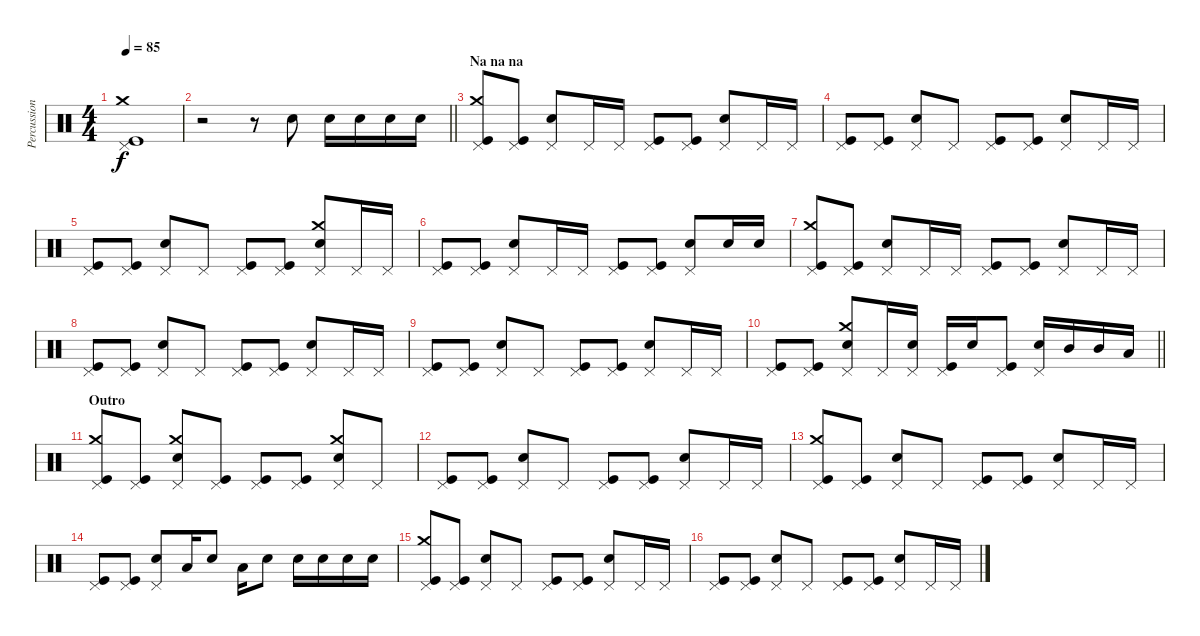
\track ("Percussion" "Percussion") {instrument percussion}
\staff {score}
\articulation defaults
\ts (4 4)
\tempo 85
\clef neutral
\ks c
("Pedal Hi-Hat (hit)" "Crash medium (hit)" "Kick (hit)").1{dy f} |
\barLineRight lightlight
r.2 r.8 "Snare (hit) 2".8 "Snare (hit) 2".16 "Snare (hit) 2".16 "Snare (hit) 2".16 "Snare (hit) 2".16 |
\section ("" "Na na na")
("Pedal Hi-Hat (hit)" "Crash medium (hit)" "Kick (hit)").8 ("Pedal Hi-Hat (hit)" "Kick (hit)").8 ("Pedal Hi-Hat (hit)" "Snare (hit) 2").8 "Pedal Hi-Hat (hit)".16 "Pedal Hi-Hat (hit)".16 ("Pedal Hi-Hat (hit)" "Kick (hit)").8 ("Pedal Hi-Hat (hit)" "Kick (hit)").8 ("Pedal Hi-Hat (hit)" "Snare (hit) 2").8 "Pedal Hi-Hat (hit)".16 "Pedal Hi-Hat (hit)".16 |
("Pedal Hi-Hat (hit)" "Kick (hit)").8 ("Pedal Hi-Hat (hit)" "Kick (hit)").8 ("Pedal Hi-Hat (hit)" "Snare (hit) 2").8 "Pedal Hi-Hat (hit)".8 ("Pedal Hi-Hat (hit)" "Kick (hit)").8 ("Pedal Hi-Hat (hit)" "Kick (hit)").8 ("Pedal Hi-Hat (hit)" "Snare (hit) 2").8 "Pedal Hi-Hat (hit)".16 "Pedal Hi-Hat (hit)".16 |
("Pedal Hi-Hat (hit)" "Kick (hit)").8 ("Pedal Hi-Hat (hit)" "Kick (hit)").8 ("Pedal Hi-Hat (hit)" "Snare (hit) 2").8 "Pedal Hi-Hat (hit)".8 ("Pedal Hi-Hat (hit)" "Kick (hit)").8 ("Pedal Hi-Hat (hit)" "Kick (hit)").8 ("Pedal Hi-Hat (hit)" "Snare (hit) 2" "Crash medium (hit)").8 "Pedal Hi-Hat (hit)".16 "Pedal Hi-Hat (hit)".16 |
("Pedal Hi-Hat (hit)" "Kick (hit)").8 ("Pedal Hi-Hat (hit)" "Kick (hit)").8 ("Pedal Hi-Hat (hit)" "Snare (hit) 2").8 "Pedal Hi-Hat (hit)".16 "Pedal Hi-Hat (hit)".16 ("Pedal Hi-Hat (hit)" "Kick (hit)").8 ("Pedal Hi-Hat (hit)" "Kick (hit)").8 ("Pedal Hi-Hat (hit)" "Snare (hit) 2").8 "Snare (hit) 2".16 "Snare (hit) 2".16 |
("Pedal Hi-Hat (hit)" "Crash medium (hit)" "Kick (hit)").8 ("Pedal Hi-Hat (hit)" "Kick (hit)").8 ("Pedal Hi-Hat (hit)" "Snare (hit) 2").8 "Pedal Hi-Hat (hit)".16 "Pedal Hi-Hat (hit)".16 ("Pedal Hi-Hat (hit)" "Kick (hit)").8 ("Pedal Hi-Hat (hit)" "Kick (hit)").8 ("Pedal Hi-Hat (hit)" "Snare (hit) 2").8 "Pedal Hi-Hat (hit)".16 "Pedal Hi-Hat (hit)".16 |
("Pedal Hi-Hat (hit)" "Kick (hit)").8 ("Pedal Hi-Hat (hit)" "Kick (hit)").8 ("Pedal Hi-Hat (hit)" "Snare (hit) 2").8 "Pedal Hi-Hat (hit)".8 ("Pedal Hi-Hat (hit)" "Kick (hit)").8 ("Pedal Hi-Hat (hit)" "Kick (hit)").8 ("Pedal Hi-Hat (hit)" "Snare (hit) 2").8 "Pedal Hi-Hat (hit)".16 "Pedal Hi-Hat (hit)".16 |
("Pedal Hi-Hat (hit)" "Kick (hit)").8 ("Pedal Hi-Hat (hit)" "Kick (hit)").8 ("Pedal Hi-Hat (hit)" "Snare (hit) 2").8 "Pedal Hi-Hat (hit)".8 ("Pedal Hi-Hat (hit)" "Kick (hit)").8 ("Pedal Hi-Hat (hit)" "Kick (hit)").8 ("Pedal Hi-Hat (hit)" "Snare (hit) 2").8 "Pedal Hi-Hat (hit)".16 "Pedal Hi-Hat (hit)".16 |
\barLineRight lightlight
("Pedal Hi-Hat (hit)" "Kick (hit)").8 ("Pedal Hi-Hat (hit)" "Kick (hit)").8 ("Pedal Hi-Hat (hit)" "Snare (hit) 2" "Crash medium (hit)").8 "Pedal Hi-Hat (hit)".16 ("Pedal Hi-Hat (hit)" "Snare (hit) 2").16 ("Pedal Hi-Hat (hit)" "Kick (hit)").16 "Snare (hit) 2".16 ("Pedal Hi-Hat (hit)" "Kick (hit)").8 ("Pedal Hi-Hat (hit)" "Snare (hit) 2").16 "Mid Tom (hit)".16 "Mid Tom (hit)".16 "Low Floor Tom (hit)".16 |
\section ("" "Outro")
("Pedal Hi-Hat (hit)" "Crash medium (hit)" "Kick (hit)").8 ("Pedal Hi-Hat (hit)" "Kick (hit)").8 ("Pedal Hi-Hat (hit)" "Snare (hit) 2" "Crash medium (hit)").8 ("Pedal Hi-Hat (hit)" "Kick (hit)").8 ("Pedal Hi-Hat (hit)" "Kick (hit)").8 ("Pedal Hi-Hat (hit)" "Kick (hit)").8 ("Pedal Hi-Hat (hit)" "Snare (hit) 2" "Crash medium (hit)").8 "Pedal Hi-Hat (hit)".8 |
("Pedal Hi-Hat (hit)" "Kick (hit)").8 ("Pedal Hi-Hat (hit)" "Kick (hit)").8 ("Pedal Hi-Hat (hit)" "Snare (hit) 2").8 "Pedal Hi-Hat (hit)".8 ("Pedal Hi-Hat (hit)" "Kick (hit)").8 ("Pedal Hi-Hat (hit)" "Kick (hit)").8 ("Pedal Hi-Hat (hit)" "Snare (hit) 2").8 "Pedal Hi-Hat (hit)".16 "Pedal Hi-Hat (hit)".16 |
("Pedal Hi-Hat (hit)" "Crash medium (hit)" "Kick (hit)").8 ("Pedal Hi-Hat (hit)" "Kick (hit)").8 ("Pedal Hi-Hat (hit)" "Snare (hit) 2").8 "Pedal Hi-Hat (hit)".8 ("Pedal Hi-Hat (hit)" "Kick (hit)").8 ("Pedal Hi-Hat (hit)" "Kick (hit)").8 ("Pedal Hi-Hat (hit)" "Snare (hit) 2").8 "Pedal Hi-Hat (hit)".16 "Pedal Hi-Hat (hit)".16 |
("Pedal Hi-Hat (hit)" "Kick (hit)").8 ("Pedal Hi-Hat (hit)" "Kick (hit)").8 ("Pedal Hi-Hat (hit)" "Snare (hit) 2").8 "Low Floor Tom (hit)".16 "Snare (hit) 2".8 "Low Floor Tom (hit)".16 "Snare (hit) 2".8 "Snare (hit) 2".16 "Snare (hit) 2".16 "Snare (hit) 2".16 "Snare (hit) 2".16 |
("Pedal Hi-Hat (hit)" "Crash medium (hit)" "Kick (hit)").8 ("Pedal Hi-Hat (hit)" "Kick (hit)").8 ("Pedal Hi-Hat (hit)" "Snare (hit) 2").8 "Pedal Hi-Hat (hit)".8 ("Pedal Hi-Hat (hit)" "Kick (hit)").8 ("Pedal Hi-Hat (hit)" "Kick (hit)").8 ("Pedal Hi-Hat (hit)" "Snare (hit) 2").8 "Pedal Hi-Hat (hit)".16 "Pedal Hi-Hat (hit)".16 |
("Pedal Hi-Hat (hit)" "Kick (hit)").8 ("Pedal Hi-Hat (hit)" "Kick (hit)").8 ("Pedal Hi-Hat (hit)" "Snare (hit) 2").8 "Pedal Hi-Hat (hit)".8 ("Pedal Hi-Hat (hit)" "Kick (hit)").8 ("Pedal Hi-Hat (hit)" "Kick (hit)").8 ("Pedal Hi-Hat (hit)" "Snare (hit) 2").8 "Pedal Hi-Hat (hit)".16 "Pedal Hi-Hat (hit)".16
